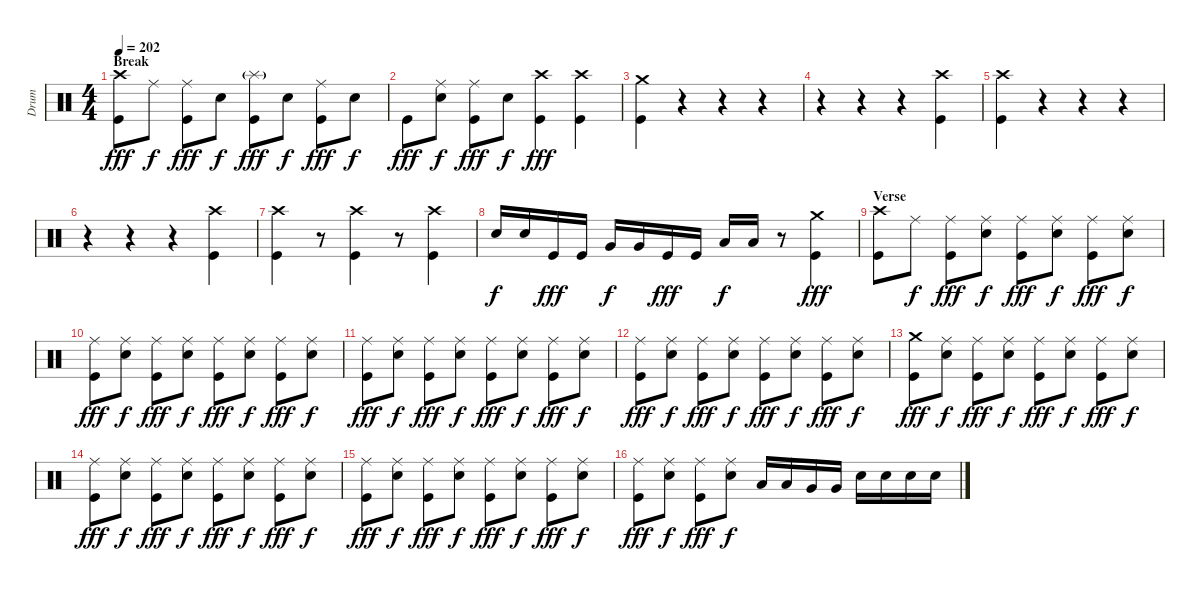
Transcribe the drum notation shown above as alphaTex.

\track ("Drum" "Drum") {instrument percussion}
\staff {score}
\articulation defaults
\ts (4 4)
\section ("" "Break")
\tempo 202
\clef neutral
\ks c
("Crash high (hit)" "Kick (hit)").8{dy fff} "Ride (middle)".8{dy f} ("Ride (middle)" "Kick (hit)").8{dy fff} "Electric Snare (hit)".8{dy f} ("Splash (hit)"{g} "Kick (hit)").8{dy fff} "Electric Snare (hit)".8{dy f} ("Ride (middle)" "Kick (hit)").8{dy fff} "Electric Snare (hit)".8{dy f} |
"Kick (hit)".8{dy fff} ("Ride (middle)" "Electric Snare (hit)").8{dy f} ("Ride (middle)" "Kick (hit)").8{dy fff} "Electric Snare (hit)".8{dy f} ("Crash high (hit)" "Kick (hit)").4{dy fff} ("Crash high (hit)" "Kick (hit)").4 |
("Crash medium (hit)" "Kick (hit)").4 r.4 r.4 r.4 |
r.4 r.4 r.4 ("Crash high (hit)" "Kick (hit)").4 |
("Crash high (hit)" "Kick (hit)").4 r.4 r.4 r.4 |
r.4 r.4 r.4 ("Crash high (hit)" "Kick (hit)").4 |
("Crash high (hit)" "Kick (hit)").4 r.8 ("Crash high (hit)" "Kick (hit)").4 r.8 ("Crash high (hit)" "Kick (hit)").4 |
"Electric Snare (hit)".16{dy f} "Electric Snare (hit)".16 "Kick (hit)".16{dy fff} "Kick (hit)".16 "Very Low Tom (hit)".16{dy f} "Very Low Tom (hit)".16 "Kick (hit)".16{dy fff} "Kick (hit)".16 "Low Tom (hit)".16{dy f} "Low Tom (hit)".16 r.8 ("Crash medium (hit)" "Kick (hit)").4{dy fff} |
\section ("" "Verse")
("Crash high (hit)" "Kick (hit)").8 "Ride (middle)".8{dy f} ("Ride (middle)" "Kick (hit)").8{dy fff} ("Ride (middle)" "Electric Snare (hit)").8{dy f} ("Ride (middle)" "Kick (hit)").8{dy fff} ("Ride (middle)" "Electric Snare (hit)").8{dy f} ("Ride (middle)" "Kick (hit)").8{dy fff} ("Ride (middle)" "Electric Snare (hit)").8{dy f} |
("Ride (middle)" "Kick (hit)").8{dy fff} ("Ride (middle)" "Electric Snare (hit)").8{dy f} ("Ride (middle)" "Kick (hit)").8{dy fff} ("Ride (middle)" "Electric Snare (hit)").8{dy f} ("Ride (middle)" "Kick (hit)").8{dy fff} ("Ride (middle)" "Electric Snare (hit)").8{dy f} ("Ride (middle)" "Kick (hit)").8{dy fff} ("Ride (middle)" "Electric Snare (hit)").8{dy f} |
("Ride (middle)" "Kick (hit)").8{dy fff} ("Ride (middle)" "Electric Snare (hit)").8{dy f} ("Ride (middle)" "Kick (hit)").8{dy fff} ("Ride (middle)" "Electric Snare (hit)").8{dy f} ("Ride (middle)" "Kick (hit)").8{dy fff} ("Ride (middle)" "Electric Snare (hit)").8{dy f} ("Ride (middle)" "Kick (hit)").8{dy fff} ("Ride (middle)" "Electric Snare (hit)").8{dy f} |
("Ride (middle)" "Kick (hit)").8{dy fff} ("Ride (middle)" "Electric Snare (hit)").8{dy f} ("Ride (middle)" "Kick (hit)").8{dy fff} ("Ride (middle)" "Electric Snare (hit)").8{dy f} ("Ride (middle)" "Kick (hit)").8{dy fff} ("Ride (middle)" "Electric Snare (hit)").8{dy f} ("Ride (middle)" "Kick (hit)").8{dy fff} ("Ride (middle)" "Electric Snare (hit)").8{dy f} |
("Crash medium (hit)" "Kick (hit)").8{dy fff} ("Ride (middle)" "Electric Snare (hit)").8{dy f} ("Ride (middle)" "Kick (hit)").8{dy fff} ("Ride (middle)" "Electric Snare (hit)").8{dy f} ("Ride (middle)" "Kick (hit)").8{dy fff} ("Ride (middle)" "Electric Snare (hit)").8{dy f} ("Ride (middle)" "Kick (hit)").8{dy fff} ("Ride (middle)" "Electric Snare (hit)").8{dy f} |
("Ride (middle)" "Kick (hit)").8{dy fff} ("Ride (middle)" "Electric Snare (hit)").8{dy f} ("Ride (middle)" "Kick (hit)").8{dy fff} ("Ride (middle)" "Electric Snare (hit)").8{dy f} ("Ride (middle)" "Kick (hit)").8{dy fff} ("Ride (middle)" "Electric Snare (hit)").8{dy f} ("Ride (middle)" "Kick (hit)").8{dy fff} ("Ride (middle)" "Electric Snare (hit)").8{dy f} |
("Ride (middle)" "Kick (hit)").8{dy fff} ("Ride (middle)" "Electric Snare (hit)").8{dy f} ("Ride (middle)" "Kick (hit)").8{dy fff} ("Ride (middle)" "Electric Snare (hit)").8{dy f} ("Ride (middle)" "Kick (hit)").8{dy fff} ("Ride (middle)" "Electric Snare (hit)").8{dy f} ("Ride (middle)" "Kick (hit)").8{dy fff} ("Ride (middle)" "Electric Snare (hit)").8{dy f} |
("Ride (middle)" "Kick (hit)").8{dy fff} ("Ride (middle)" "Electric Snare (hit)").8{dy f} ("Ride (middle)" "Kick (hit)").8{dy fff} ("Ride (middle)" "Electric Snare (hit)").8{dy f} "Low Tom (hit)".16 "Low Tom (hit)".16 "Very Low Tom (hit)".16 "Very Low Tom (hit)".16 "Electric Snare (hit)".16 "Electric Snare (hit)".16 "Electric Snare (hit)".16 "Electric Snare (hit)".16
